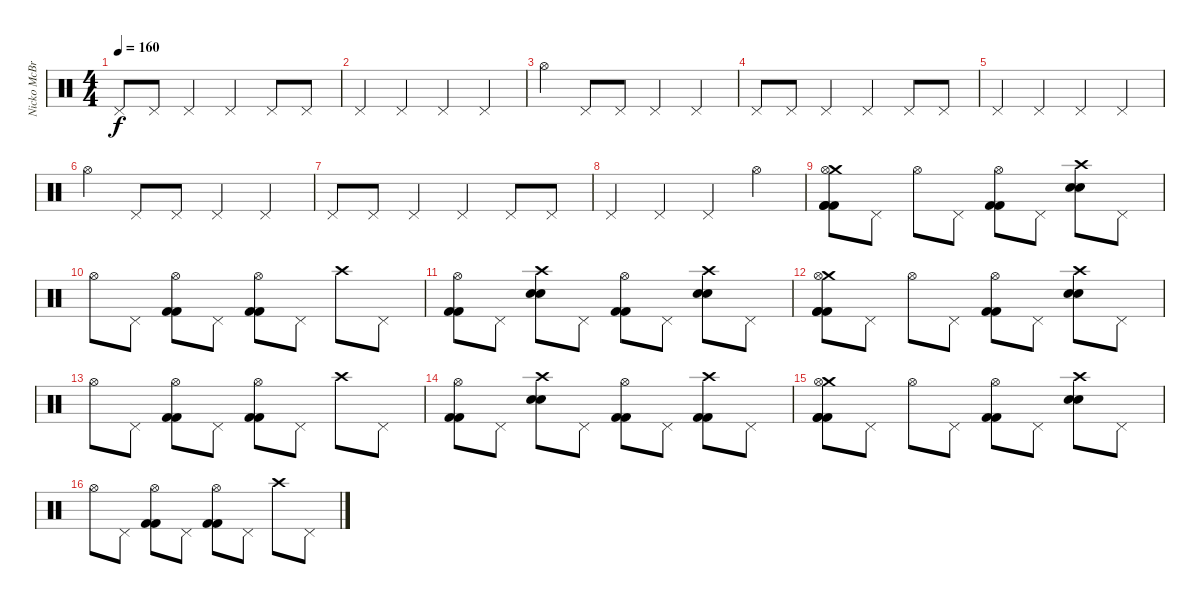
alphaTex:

\track ("Nicko McBrain" "Nicko McBr") {instrument percussion}
\staff {score}
\articulation defaults
\ts (4 4)
\tempo 160
\clef neutral
\ks c "Pedal Hi-Hat (hit)".8{dy f} "Pedal Hi-Hat (hit)".8 "Pedal Hi-Hat (hit)".4 "Pedal Hi-Hat (hit)".4 "Pedal Hi-Hat (hit)".8 "Pedal Hi-Hat (hit)".8
|
"Pedal Hi-Hat (hit)".4 "Pedal Hi-Hat (hit)".4 "Pedal Hi-Hat (hit)".4 "Pedal Hi-Hat (hit)".4 |
"Hi-Hat (open)".4 "Pedal Hi-Hat (hit)".8 "Pedal Hi-Hat (hit)".8 "Pedal Hi-Hat (hit)".4 "Pedal Hi-Hat (hit)".4 |
"Pedal Hi-Hat (hit)".8 "Pedal Hi-Hat (hit)".8 "Pedal Hi-Hat (hit)".4 "Pedal Hi-Hat (hit)".4 "Pedal Hi-Hat (hit)".8 "Pedal Hi-Hat (hit)".8 |
"Pedal Hi-Hat (hit)".4 "Pedal Hi-Hat (hit)".4 "Pedal Hi-Hat (hit)".4 "Pedal Hi-Hat (hit)".4 |
"Hi-Hat (open)".4 "Pedal Hi-Hat (hit)".8 "Pedal Hi-Hat (hit)".8 "Pedal Hi-Hat (hit)".4 "Pedal Hi-Hat (hit)".4 |
"Pedal Hi-Hat (hit)".8 "Pedal Hi-Hat (hit)".8 "Pedal Hi-Hat (hit)".4 "Pedal Hi-Hat (hit)".4 "Pedal Hi-Hat (hit)".8 "Pedal Hi-Hat (hit)".8 |
"Pedal Hi-Hat (hit)".4 "Pedal Hi-Hat (hit)".4 "Pedal Hi-Hat (hit)".4 "Hi-Hat (open)".4 |
("Crash medium (hit)" "Hi-Hat (open)" "Kick (hit) 2" "Kick (hit) 2" "Kick (hit) 2").8 "Pedal Hi-Hat (hit)".8 "Hi-Hat (open)".8 "Pedal Hi-Hat (hit)".8 ("Hi-Hat (open)" "Kick (hit) 2" "Kick (hit) 2").8 "Pedal Hi-Hat (hit)".8 ("Crash high (hit)" "Snare (hit) 2" "Snare (hit) 2").8 "Pedal Hi-Hat (hit)".8 |
"Hi-Hat (open)".8 "Pedal Hi-Hat (hit)".8 ("Hi-Hat (open)" "Kick (hit) 2" "Kick (hit) 2").8 "Pedal Hi-Hat (hit)".8 ("Hi-Hat (open)" "Kick (hit) 2" "Kick (hit) 2").8 "Pedal Hi-Hat (hit)".8 "Crash high (hit)".8 "Pedal Hi-Hat (hit)".8 |
("Hi-Hat (open)" "Kick (hit) 2" "Kick (hit) 2").8 "Pedal Hi-Hat (hit)".8 ("Crash high (hit)" "Snare (hit) 2" "Snare (hit) 2").8 "Pedal Hi-Hat (hit)".8 ("Hi-Hat (open)" "Kick (hit) 2" "Kick (hit) 2").8 "Pedal Hi-Hat (hit)".8 ("Crash high (hit)" "Snare (hit) 2" "Snare (hit) 2").8 "Pedal Hi-Hat (hit)".8 |
("Crash medium (hit)" "Hi-Hat (open)" "Kick (hit) 2" "Kick (hit) 2" "Kick (hit) 2").8 "Pedal Hi-Hat (hit)".8 "Hi-Hat (open)".8 "Pedal Hi-Hat (hit)".8 ("Hi-Hat (open)" "Kick (hit) 2" "Kick (hit) 2").8 "Pedal Hi-Hat (hit)".8 ("Crash high (hit)" "Snare (hit) 2" "Snare (hit) 2").8 "Pedal Hi-Hat (hit)".8 |
"Hi-Hat (open)".8 "Pedal Hi-Hat (hit)".8 ("Hi-Hat (open)" "Kick (hit) 2" "Kick (hit) 2").8 "Pedal Hi-Hat (hit)".8 ("Hi-Hat (open)" "Kick (hit) 2" "Kick (hit) 2").8 "Pedal Hi-Hat (hit)".8 "Crash high (hit)".8 "Pedal Hi-Hat (hit)".8 |
("Hi-Hat (open)" "Kick (hit) 2" "Kick (hit) 2").8 "Pedal Hi-Hat (hit)".8 ("Crash high (hit)" "Snare (hit) 2" "Snare (hit) 2").8 "Pedal Hi-Hat (hit)".8 ("Hi-Hat (open)" "Kick (hit) 2" "Kick (hit) 2").8 "Pedal Hi-Hat (hit)".8 ("Crash high (hit)" "Kick (hit) 2" "Kick (hit) 2").8 "Pedal Hi-Hat (hit)".8 |
("Crash medium (hit)" "Hi-Hat (open)" "Kick (hit) 2" "Kick (hit) 2" "Kick (hit) 2").8 "Pedal Hi-Hat (hit)".8 "Hi-Hat (open)".8 "Pedal Hi-Hat (hit)".8 ("Hi-Hat (open)" "Kick (hit) 2" "Kick (hit) 2").8 "Pedal Hi-Hat (hit)".8 ("Crash high (hit)" "Snare (hit) 2" "Snare (hit) 2").8 "Pedal Hi-Hat (hit)".8 |
"Hi-Hat (open)".8 "Pedal Hi-Hat (hit)".8 ("Hi-Hat (open)" "Kick (hit) 2" "Kick (hit) 2").8 "Pedal Hi-Hat (hit)".8 ("Hi-Hat (open)" "Kick (hit) 2" "Kick (hit) 2").8 "Pedal Hi-Hat (hit)".8 "Crash high (hit)".8 "Pedal Hi-Hat (hit)".8
